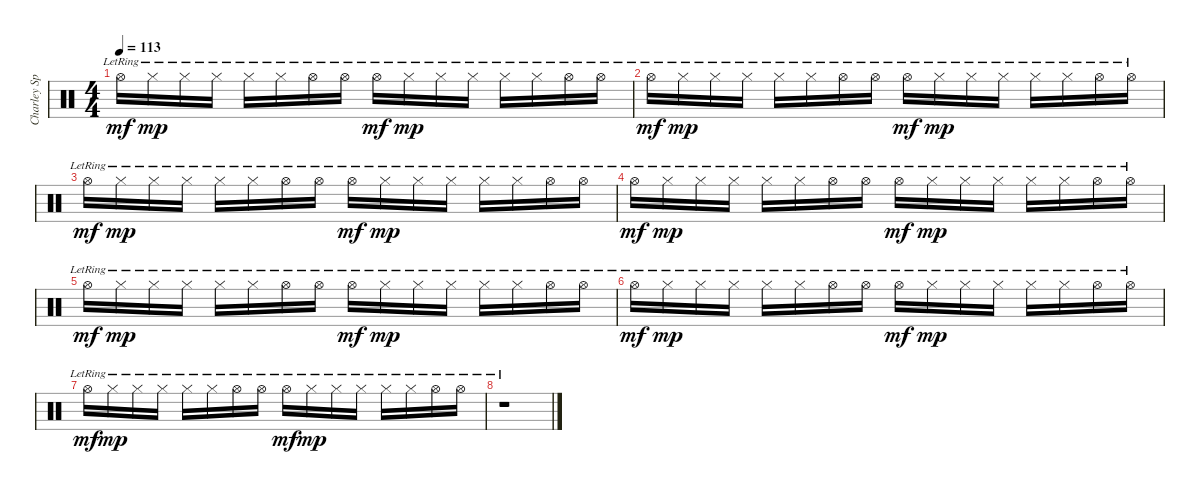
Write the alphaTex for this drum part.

\track ("Charley Spec." "Charley Sp") {instrument percussion}
\staff {score}
\articulation defaults
\ts (4 4)
\tempo 113
\clef neutral
\ks c "Hi-Hat (open)"{lr}.16{dy mf} "Hi-Hat (closed)"{lr}.16{dy mp} "Hi-Hat (closed)"{lr}.16 "Hi-Hat (closed)"{lr}.16 "Hi-Hat (closed)"{lr}.16 "Hi-Hat (closed)"{lr}.16 "Hi-Hat (open)"{lr}.16 "Hi-Hat (open)"{lr}.16 "Hi-Hat (open)"{lr}.16{dy mf} "Hi-Hat (closed)"{lr}.16{dy mp} "Hi-Hat (closed)"{lr}.16 "Hi-Hat (closed)"{lr}.16 "Hi-Hat (closed)"{lr}.16 "Hi-Hat (closed)"{lr}.16 "Hi-Hat (open)"{lr}.16 "Hi-Hat (open)"{lr}.16
|
"Hi-Hat (open)"{lr}.16{dy mf} "Hi-Hat (closed)"{lr}.16{dy mp} "Hi-Hat (closed)"{lr}.16 "Hi-Hat (closed)"{lr}.16 "Hi-Hat (closed)"{lr}.16 "Hi-Hat (closed)"{lr}.16 "Hi-Hat (open)"{lr}.16 "Hi-Hat (open)"{lr}.16 "Hi-Hat (open)"{lr}.16{dy mf} "Hi-Hat (closed)"{lr}.16{dy mp} "Hi-Hat (closed)"{lr}.16 "Hi-Hat (closed)"{lr}.16 "Hi-Hat (closed)"{lr}.16 "Hi-Hat (closed)"{lr}.16 "Hi-Hat (open)"{lr}.16 "Hi-Hat (open)"{lr}.16 |
"Hi-Hat (open)"{lr}.16{dy mf} "Hi-Hat (closed)"{lr}.16{dy mp} "Hi-Hat (closed)"{lr}.16 "Hi-Hat (closed)"{lr}.16 "Hi-Hat (closed)"{lr}.16 "Hi-Hat (closed)"{lr}.16 "Hi-Hat (open)"{lr}.16 "Hi-Hat (open)"{lr}.16 "Hi-Hat (open)"{lr}.16{dy mf} "Hi-Hat (closed)"{lr}.16{dy mp} "Hi-Hat (closed)"{lr}.16 "Hi-Hat (closed)"{lr}.16 "Hi-Hat (closed)"{lr}.16 "Hi-Hat (closed)"{lr}.16 "Hi-Hat (open)"{lr}.16 "Hi-Hat (open)"{lr}.16 |
"Hi-Hat (open)"{lr}.16{dy mf} "Hi-Hat (closed)"{lr}.16{dy mp} "Hi-Hat (closed)"{lr}.16 "Hi-Hat (closed)"{lr}.16 "Hi-Hat (closed)"{lr}.16 "Hi-Hat (closed)"{lr}.16 "Hi-Hat (open)"{lr}.16 "Hi-Hat (open)"{lr}.16 "Hi-Hat (open)"{lr}.16{dy mf} "Hi-Hat (closed)"{lr}.16{dy mp} "Hi-Hat (closed)"{lr}.16 "Hi-Hat (closed)"{lr}.16 "Hi-Hat (closed)"{lr}.16 "Hi-Hat (closed)"{lr}.16 "Hi-Hat (open)"{lr}.16 "Hi-Hat (open)"{lr}.16 |
"Hi-Hat (open)"{lr}.16{dy mf} "Hi-Hat (closed)"{lr}.16{dy mp} "Hi-Hat (closed)"{lr}.16 "Hi-Hat (closed)"{lr}.16 "Hi-Hat (closed)"{lr}.16 "Hi-Hat (closed)"{lr}.16 "Hi-Hat (open)"{lr}.16 "Hi-Hat (open)"{lr}.16 "Hi-Hat (open)"{lr}.16{dy mf} "Hi-Hat (closed)"{lr}.16{dy mp} "Hi-Hat (closed)"{lr}.16 "Hi-Hat (closed)"{lr}.16 "Hi-Hat (closed)"{lr}.16 "Hi-Hat (closed)"{lr}.16 "Hi-Hat (open)"{lr}.16 "Hi-Hat (open)"{lr}.16 |
"Hi-Hat (open)"{lr}.16{dy mf} "Hi-Hat (closed)"{lr}.16{dy mp} "Hi-Hat (closed)"{lr}.16 "Hi-Hat (closed)"{lr}.16 "Hi-Hat (closed)"{lr}.16 "Hi-Hat (closed)"{lr}.16 "Hi-Hat (open)"{lr}.16 "Hi-Hat (open)"{lr}.16 "Hi-Hat (open)"{lr}.16{dy mf} "Hi-Hat (closed)"{lr}.16{dy mp} "Hi-Hat (closed)"{lr}.16 "Hi-Hat (closed)"{lr}.16 "Hi-Hat (closed)"{lr}.16 "Hi-Hat (closed)"{lr}.16 "Hi-Hat (open)"{lr}.16 "Hi-Hat (open)"{lr}.16 |
"Hi-Hat (open)"{lr}.16{dy mf} "Hi-Hat (closed)"{lr}.16{dy mp} "Hi-Hat (closed)"{lr}.16 "Hi-Hat (closed)"{lr}.16 "Hi-Hat (closed)"{lr}.16 "Hi-Hat (closed)"{lr}.16 "Hi-Hat (open)"{lr}.16 "Hi-Hat (open)"{lr}.16 "Hi-Hat (open)"{lr}.16{dy mf} "Hi-Hat (closed)"{lr}.16{dy mp} "Hi-Hat (closed)"{lr}.16 "Hi-Hat (closed)"{lr}.16 "Hi-Hat (closed)"{lr}.16 "Hi-Hat (closed)"{lr}.16 "Hi-Hat (open)"{lr}.16 "Hi-Hat (open)"{lr}.16 |
r.1
